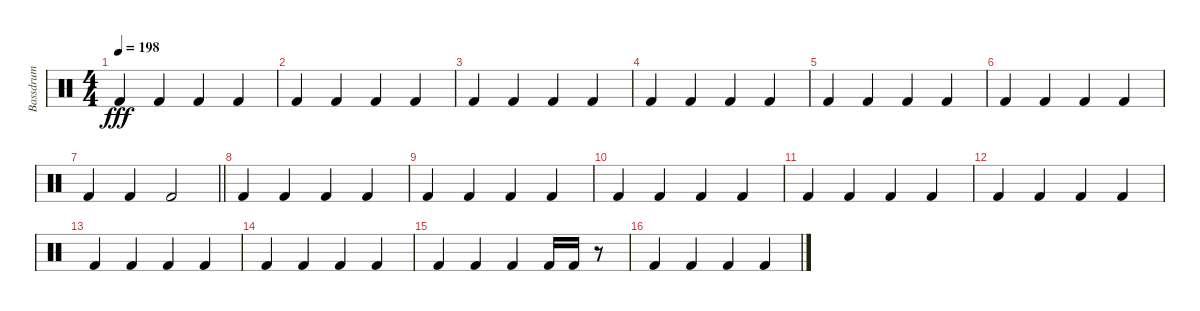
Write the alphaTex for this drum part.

\track ("Bassdrum" "Bassdrum") {instrument percussion}
\staff {score}
\articulation defaults
\ts (4 4)
\tempo 198
\clef neutral
\ks c "Kick (hit) 2".4{dy fff} "Kick (hit) 2".4 "Kick (hit) 2".4 "Kick (hit) 2".4
|
"Kick (hit) 2".4 "Kick (hit) 2".4 "Kick (hit) 2".4 "Kick (hit) 2".4 |
"Kick (hit) 2".4 "Kick (hit) 2".4 "Kick (hit) 2".4 "Kick (hit) 2".4 |
"Kick (hit) 2".4 "Kick (hit) 2".4 "Kick (hit) 2".4 "Kick (hit) 2".4 |
"Kick (hit) 2".4 "Kick (hit) 2".4 "Kick (hit) 2".4 "Kick (hit) 2".4 |
"Kick (hit) 2".4 "Kick (hit) 2".4 "Kick (hit) 2".4 "Kick (hit) 2".4 |
\barLineRight lightlight "Kick (hit) 2".4 "Kick (hit) 2".4 "Kick (hit) 2".2
|
\section ("" "")
"Kick (hit) 2".4 "Kick (hit) 2".4 "Kick (hit) 2".4 "Kick (hit) 2".4 |
"Kick (hit) 2".4 "Kick (hit) 2".4 "Kick (hit) 2".4 "Kick (hit) 2".4 |
"Kick (hit) 2".4 "Kick (hit) 2".4 "Kick (hit) 2".4 "Kick (hit) 2".4 |
"Kick (hit) 2".4 "Kick (hit) 2".4 "Kick (hit) 2".4 "Kick (hit) 2".4 |
"Kick (hit) 2".4 "Kick (hit) 2".4 "Kick (hit) 2".4 "Kick (hit) 2".4 |
"Kick (hit) 2".4 "Kick (hit) 2".4 "Kick (hit) 2".4 "Kick (hit) 2".4 |
"Kick (hit) 2".4 "Kick (hit) 2".4 "Kick (hit) 2".4 "Kick (hit) 2".4 |
"Kick (hit) 2".4 "Kick (hit) 2".4 "Kick (hit) 2".4 "Kick (hit) 2".16 "Kick (hit) 2".16 r.8 |
"Kick (hit) 2".4 "Kick (hit) 2".4 "Kick (hit) 2".4 "Kick (hit) 2".4
